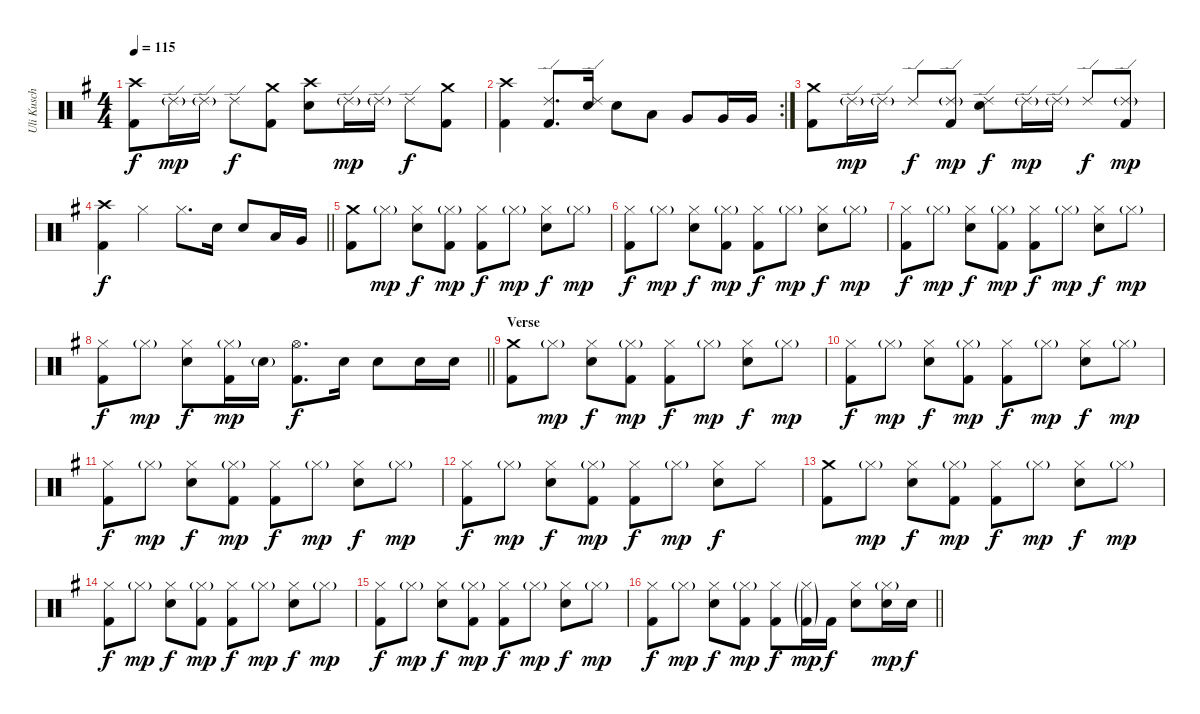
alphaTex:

\track ("Uli Kusch" "Uli Kusch") {instrument percussion}
\staff {score}
\articulation defaults
\ts (4 4)
\tempo 115
\clef neutral
\ks eminor
("Crash high (hit)" "Kick (hit) 2").8{dy f} "Ride (edge) 2"{g}.16{dy mp} "Ride (edge) 2"{g}.16 "Ride (edge) 2".8{dy f} ("Crash medium (hit)" "Kick (hit) 2").8 ("Crash high (hit)" "Snare (hit) 2").8 "Ride (edge) 2"{g}.16{dy mp} "Ride (edge) 2"{g}.16 "Ride (edge) 2".8{dy f} ("Crash medium (hit)" "Kick (hit) 2").8 |
\rc 2
("Crash high (hit)" "Kick (hit) 2").4 ("Ride (edge) 2" "Kick (hit) 2").8{d} ("Ride (edge) 2" "Snare (hit) 2").16 "Snare (hit) 2".8 "Low Tom (hit)".8 "Very Low Tom (hit)".8 "Very Low Tom (hit)".16 "Very Low Tom (hit)".16 |
("Crash medium (hit)" "Kick (hit) 2").8 "Ride (edge) 2"{g}.16{dy mp} "Ride (edge) 2"{g}.16 "Ride (edge) 2".8{dy f} ("Ride (edge) 2"{g} "Kick (hit) 2").8{dy mp} ("Ride (edge) 2" "Snare (hit) 2").8{dy f} "Ride (edge) 2"{g}.16{dy mp} "Ride (edge) 2"{g}.16 "Ride (edge) 2".8{dy f} ("Ride (edge) 2"{g} "Kick (hit) 2").8{dy mp} |
\barLineRight lightlight
("Crash high (hit)" "Kick (hit) 2").4{dy f} "Hi-Hat (closed)".4 "Hi-Hat (closed)".8{d} "Snare (hit) 2".16 "Snare (hit) 2".8 "Low Tom (hit)".16 "Very Low Tom (hit)".16 |
("Crash medium (hit)" "Kick (hit) 2").8 "Hi-Hat (closed)"{g}.8{dy mp} ("Hi-Hat (closed)" "Snare (hit) 2").8{dy f} ("Hi-Hat (closed)"{g} "Kick (hit) 2").8{dy mp} ("Hi-Hat (closed)" "Kick (hit) 2").8{dy f} "Hi-Hat (closed)"{g}.8{dy mp} ("Hi-Hat (closed)" "Snare (hit) 2").8{dy f} "Hi-Hat (closed)"{g}.8{dy mp} |
("Hi-Hat (closed)" "Kick (hit) 2").8{dy f} "Hi-Hat (closed)"{g}.8{dy mp} ("Hi-Hat (closed)" "Snare (hit) 2").8{dy f} ("Hi-Hat (closed)"{g} "Kick (hit) 2").8{dy mp} ("Hi-Hat (closed)" "Kick (hit) 2").8{dy f} "Hi-Hat (closed)"{g}.8{dy mp} ("Hi-Hat (closed)" "Snare (hit) 2").8{dy f} "Hi-Hat (closed)"{g}.8{dy mp} |
("Hi-Hat (closed)" "Kick (hit) 2").8{dy f} "Hi-Hat (closed)"{g}.8{dy mp} ("Hi-Hat (closed)" "Snare (hit) 2").8{dy f} ("Hi-Hat (closed)"{g} "Kick (hit) 2").8{dy mp} ("Hi-Hat (closed)" "Kick (hit) 2").8{dy f} "Hi-Hat (closed)"{g}.8{dy mp} ("Hi-Hat (closed)" "Snare (hit) 2").8{dy f} "Hi-Hat (closed)"{g}.8{dy mp} |
\barLineRight lightlight
("Hi-Hat (closed)" "Kick (hit) 2").8{dy f} "Hi-Hat (closed)"{g}.8{dy mp} ("Hi-Hat (closed)" "Snare (hit) 2").8{dy f} ("Hi-Hat (closed)"{g} "Kick (hit) 2").16{dy mp} "Snare (hit) 2"{g}.16 ("Hi-Hat (open)" "Kick (hit) 2").8{d dy f} "Snare (hit) 2".16 "Snare (hit) 2".8 "Snare (hit) 2".16 "Snare (hit) 2".16 |
\section ("" "Verse")
("Crash medium (hit)" "Kick (hit) 2").8 "Hi-Hat (closed)"{g}.8{dy mp} ("Hi-Hat (closed)" "Snare (hit) 2").8{dy f} ("Hi-Hat (closed)"{g} "Kick (hit) 2").8{dy mp} ("Hi-Hat (closed)" "Kick (hit) 2").8{dy f} "Hi-Hat (closed)"{g}.8{dy mp} ("Hi-Hat (closed)" "Snare (hit) 2").8{dy f} "Hi-Hat (closed)"{g}.8{dy mp} |
("Hi-Hat (closed)" "Kick (hit) 2").8{dy f} "Hi-Hat (closed)"{g}.8{dy mp} ("Hi-Hat (closed)" "Snare (hit) 2").8{dy f} ("Hi-Hat (closed)"{g} "Kick (hit) 2").8{dy mp} ("Hi-Hat (closed)" "Kick (hit) 2").8{dy f} "Hi-Hat (closed)"{g}.8{dy mp} ("Hi-Hat (closed)" "Snare (hit) 2").8{dy f} "Hi-Hat (closed)"{g}.8{dy mp} |
("Hi-Hat (closed)" "Kick (hit) 2").8{dy f} "Hi-Hat (closed)"{g}.8{dy mp} ("Hi-Hat (closed)" "Snare (hit) 2").8{dy f} ("Hi-Hat (closed)"{g} "Kick (hit) 2").8{dy mp} ("Hi-Hat (closed)" "Kick (hit) 2").8{dy f} "Hi-Hat (closed)"{g}.8{dy mp} ("Hi-Hat (closed)" "Snare (hit) 2").8{dy f} "Hi-Hat (closed)"{g}.8{dy mp} |
("Hi-Hat (closed)" "Kick (hit) 2").8{dy f} "Hi-Hat (closed)"{g}.8{dy mp} ("Hi-Hat (closed)" "Snare (hit) 2").8{dy f} ("Hi-Hat (closed)"{g} "Kick (hit) 2").8{dy mp} ("Hi-Hat (closed)" "Kick (hit) 2").8{dy f} "Hi-Hat (closed)"{g}.8{dy mp} ("Hi-Hat (closed)" "Snare (hit) 2").8{dy f} "Hi-Hat (closed)".8 |
("Crash medium (hit)" "Kick (hit) 2").8 "Hi-Hat (closed)"{g}.8{dy mp} ("Hi-Hat (closed)" "Snare (hit) 2").8{dy f} ("Hi-Hat (closed)"{g} "Kick (hit) 2").8{dy mp} ("Hi-Hat (closed)" "Kick (hit) 2").8{dy f} "Hi-Hat (closed)"{g}.8{dy mp} ("Hi-Hat (closed)" "Snare (hit) 2").8{dy f} "Hi-Hat (closed)"{g}.8{dy mp} |
("Hi-Hat (closed)" "Kick (hit) 2").8{dy f} "Hi-Hat (closed)"{g}.8{dy mp} ("Hi-Hat (closed)" "Snare (hit) 2").8{dy f} ("Hi-Hat (closed)"{g} "Kick (hit) 2").8{dy mp} ("Hi-Hat (closed)" "Kick (hit) 2").8{dy f} "Hi-Hat (closed)"{g}.8{dy mp} ("Hi-Hat (closed)" "Snare (hit) 2").8{dy f} "Hi-Hat (closed)"{g}.8{dy mp} |
("Hi-Hat (closed)" "Kick (hit) 2").8{dy f} "Hi-Hat (closed)"{g}.8{dy mp} ("Hi-Hat (closed)" "Snare (hit) 2").8{dy f} ("Hi-Hat (closed)"{g} "Kick (hit) 2").8{dy mp} ("Hi-Hat (closed)" "Kick (hit) 2").8{dy f} "Hi-Hat (closed)"{g}.8{dy mp} ("Hi-Hat (closed)" "Snare (hit) 2").8{dy f} "Hi-Hat (closed)"{g}.8{dy mp} |
\barLineRight lightlight
("Hi-Hat (closed)" "Kick (hit) 2").8{dy f} "Hi-Hat (closed)"{g}.8{dy mp} ("Hi-Hat (closed)" "Snare (hit) 2").8{dy f} ("Hi-Hat (closed)"{g} "Kick (hit) 2").8{dy mp} ("Hi-Hat (closed)" "Kick (hit) 2").8{dy f} ("Hi-Hat (closed)"{g} "Kick (hit) 2"{g}).16{dy mp} "Kick (hit) 2".16{dy f} ("Hi-Hat (closed)" "Snare (hit) 2").8 ("Hi-Hat (closed)"{g} "Snare (hit) 2").16{dy mp} "Snare (hit) 2".16{dy f}
